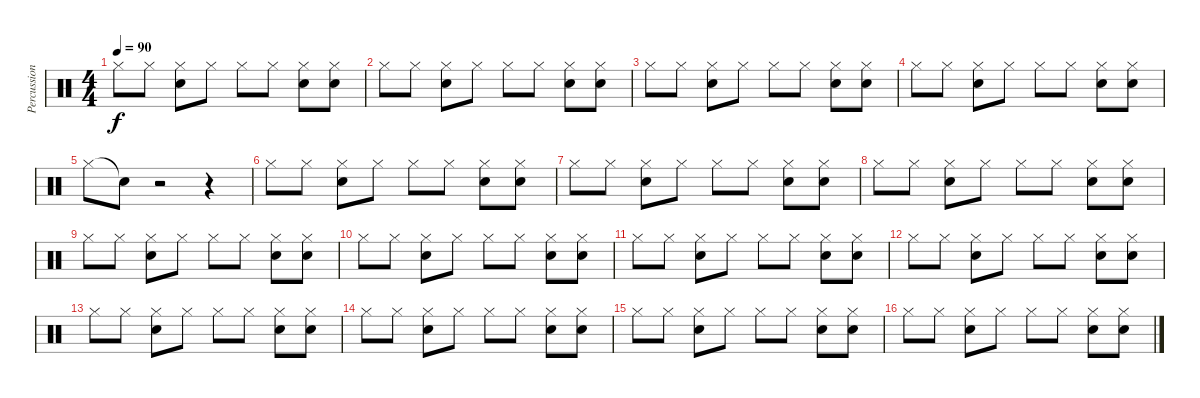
\track ("Percussion" "Percussion") {instrument percussion}
\staff {score}
\articulation defaults
\ts (4 4)
\tempo 90
\clef neutral
\ks c "Hi-Hat (closed)".8{dy f} "Hi-Hat (closed)".8
("Snare (hit) 2" "Hi-Hat (closed)").8 "Hi-Hat (closed)".8 "Hi-Hat (closed)".8 "Hi-Hat (closed)".8 ("Snare (hit) 2" "Hi-Hat (closed)").8 ("Snare (hit) 2" "Hi-Hat (closed)").8 |
"Hi-Hat (closed)".8 "Hi-Hat (closed)".8 ("Snare (hit) 2" "Hi-Hat (closed)").8 "Hi-Hat (closed)".8 "Hi-Hat (closed)".8 "Hi-Hat (closed)".8 ("Snare (hit) 2" "Hi-Hat (closed)").8 ("Snare (hit) 2" "Hi-Hat (closed)").8 |
"Hi-Hat (closed)".8 "Hi-Hat (closed)".8 ("Snare (hit) 2" "Hi-Hat (closed)").8 "Hi-Hat (closed)".8 "Hi-Hat (closed)".8 "Hi-Hat (closed)".8 ("Snare (hit) 2" "Hi-Hat (closed)").8 ("Snare (hit) 2" "Hi-Hat (closed)").8 |
"Hi-Hat (closed)".8 "Hi-Hat (closed)".8 ("Snare (hit) 2" "Hi-Hat (closed)").8 "Hi-Hat (closed)".8 "Hi-Hat (closed)".8 "Hi-Hat (closed)".8 ("Snare (hit) 2" "Hi-Hat (closed)").8 ("Snare (hit) 2" "Hi-Hat (closed)").8 |
"Hi-Hat (closed)".8 "Snare (hit)"{t}.8 r.2 r.4 |
"Hi-Hat (closed)".8 "Hi-Hat (closed)".8 ("Snare (hit) 2" "Hi-Hat (closed)").8 "Hi-Hat (closed)".8 "Hi-Hat (closed)".8 "Hi-Hat (closed)".8 ("Snare (hit) 2" "Hi-Hat (closed)").8 ("Snare (hit) 2" "Hi-Hat (closed)").8 |
"Hi-Hat (closed)".8 "Hi-Hat (closed)".8 ("Snare (hit) 2" "Hi-Hat (closed)").8 "Hi-Hat (closed)".8 "Hi-Hat (closed)".8 "Hi-Hat (closed)".8 ("Snare (hit) 2" "Hi-Hat (closed)").8 ("Snare (hit) 2" "Hi-Hat (closed)").8 |
"Hi-Hat (closed)".8 "Hi-Hat (closed)".8 ("Snare (hit) 2" "Hi-Hat (closed)").8 "Hi-Hat (closed)".8 "Hi-Hat (closed)".8 "Hi-Hat (closed)".8 ("Snare (hit) 2" "Hi-Hat (closed)").8 ("Snare (hit) 2" "Hi-Hat (closed)").8 |
"Hi-Hat (closed)".8 "Hi-Hat (closed)".8 ("Snare (hit) 2" "Hi-Hat (closed)").8 "Hi-Hat (closed)".8 "Hi-Hat (closed)".8 "Hi-Hat (closed)".8 ("Snare (hit) 2" "Hi-Hat (closed)").8 ("Snare (hit) 2" "Hi-Hat (closed)").8 |
"Hi-Hat (closed)".8 "Hi-Hat (closed)".8 ("Snare (hit) 2" "Hi-Hat (closed)").8 "Hi-Hat (closed)".8 "Hi-Hat (closed)".8 "Hi-Hat (closed)".8 ("Snare (hit) 2" "Hi-Hat (closed)").8 ("Snare (hit) 2" "Hi-Hat (closed)").8 |
"Hi-Hat (closed)".8 "Hi-Hat (closed)".8 ("Snare (hit) 2" "Hi-Hat (closed)").8 "Hi-Hat (closed)".8 "Hi-Hat (closed)".8 "Hi-Hat (closed)".8 ("Snare (hit) 2" "Hi-Hat (closed)").8 ("Snare (hit) 2" "Hi-Hat (closed)").8 |
"Hi-Hat (closed)".8 "Hi-Hat (closed)".8 ("Snare (hit) 2" "Hi-Hat (closed)").8 "Hi-Hat (closed)".8 "Hi-Hat (closed)".8 "Hi-Hat (closed)".8 ("Snare (hit) 2" "Hi-Hat (closed)").8 ("Snare (hit) 2" "Hi-Hat (closed)").8 |
"Hi-Hat (closed)".8 "Hi-Hat (closed)".8 ("Snare (hit) 2" "Hi-Hat (closed)").8 "Hi-Hat (closed)".8 "Hi-Hat (closed)".8 "Hi-Hat (closed)".8 ("Snare (hit) 2" "Hi-Hat (closed)").8 ("Snare (hit) 2" "Hi-Hat (closed)").8 |
"Hi-Hat (closed)".8 "Hi-Hat (closed)".8 ("Snare (hit) 2" "Hi-Hat (closed)").8 "Hi-Hat (closed)".8 "Hi-Hat (closed)".8 "Hi-Hat (closed)".8 ("Snare (hit) 2" "Hi-Hat (closed)").8 ("Snare (hit) 2" "Hi-Hat (closed)").8 |
"Hi-Hat (closed)".8 "Hi-Hat (closed)".8 ("Snare (hit) 2" "Hi-Hat (closed)").8 "Hi-Hat (closed)".8 "Hi-Hat (closed)".8 "Hi-Hat (closed)".8 ("Snare (hit) 2" "Hi-Hat (closed)").8 ("Snare (hit) 2" "Hi-Hat (closed)").8 |
"Hi-Hat (closed)".8 "Hi-Hat (closed)".8 ("Snare (hit) 2" "Hi-Hat (closed)").8 "Hi-Hat (closed)".8 "Hi-Hat (closed)".8 "Hi-Hat (closed)".8 ("Snare (hit) 2" "Hi-Hat (closed)").8 ("Snare (hit) 2" "Hi-Hat (closed)").8
